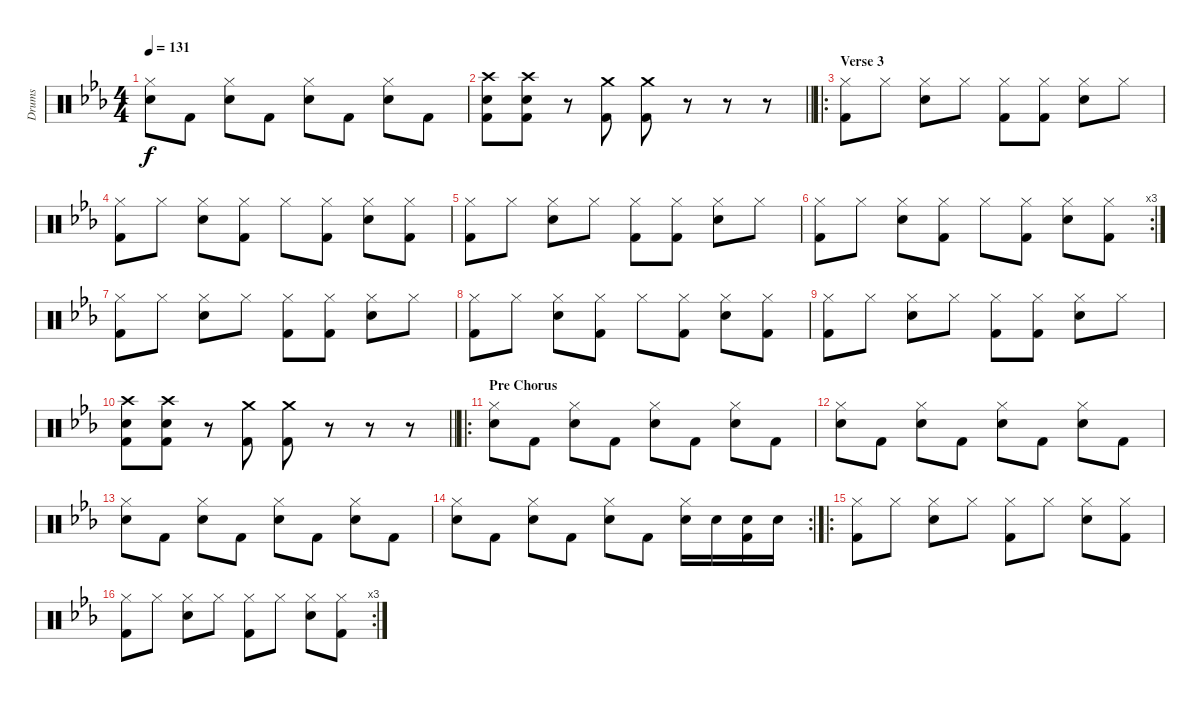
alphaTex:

\track ("Drums" "Drums") {instrument percussion}
\staff
\articulation defaults
\ts (4 4)
\tempo 131
\clef neutral
\ks eb
("Snare (hit) 2" "Hi-Hat (closed)").8{dy f} "Kick (hit) 2".8 ("Snare (hit) 2" "Hi-Hat (closed)").8 "Kick (hit) 2".8 ("Snare (hit) 2" "Hi-Hat (closed)").8 "Kick (hit) 2".8 ("Snare (hit) 2" "Hi-Hat (closed)").8 "Kick (hit) 2".8 |
\barLineRight lightlight
("Crash high (hit)" "Snare (hit) 2" "Kick (hit) 2").8 ("Crash high (hit)" "Snare (hit) 2" "Kick (hit) 2").8 r.8 ("Crash medium (hit)" "Kick (hit) 2").8 ("Crash medium (hit)" "Kick (hit) 2").8 r.8 r.8 r.8 |
\ro
\section ("" "Verse 3")
("Hi-Hat (closed)" "Kick (hit) 2").8 "Hi-Hat (closed)".8 ("Snare (hit) 2" "Hi-Hat (closed)").8 "Hi-Hat (closed)".8 ("Hi-Hat (closed)" "Kick (hit) 2").8 ("Hi-Hat (closed)" "Kick (hit) 2").8 ("Snare (hit) 2" "Hi-Hat (closed)").8 "Hi-Hat (closed)".8 |
("Hi-Hat (closed)" "Kick (hit) 2").8 "Hi-Hat (closed)".8 ("Snare (hit) 2" "Hi-Hat (closed)").8 ("Hi-Hat (closed)" "Kick (hit) 2").8 "Hi-Hat (closed)".8 ("Hi-Hat (closed)" "Kick (hit) 2").8 ("Snare (hit) 2" "Hi-Hat (closed)").8 ("Hi-Hat (closed)" "Kick (hit) 2").8 |
("Hi-Hat (closed)" "Kick (hit) 2").8 "Hi-Hat (closed)".8 ("Snare (hit) 2" "Hi-Hat (closed)").8 "Hi-Hat (closed)".8 ("Hi-Hat (closed)" "Kick (hit) 2").8 ("Hi-Hat (closed)" "Kick (hit) 2").8 ("Snare (hit) 2" "Hi-Hat (closed)").8 "Hi-Hat (closed)".8 |
\rc 3
("Hi-Hat (closed)" "Kick (hit) 2").8 "Hi-Hat (closed)".8 ("Snare (hit) 2" "Hi-Hat (closed)").8 ("Hi-Hat (closed)" "Kick (hit) 2").8 "Hi-Hat (closed)".8 ("Hi-Hat (closed)" "Kick (hit) 2").8 ("Snare (hit) 2" "Hi-Hat (closed)").8 ("Hi-Hat (closed)" "Kick (hit) 2").8 |
("Hi-Hat (closed)" "Kick (hit) 2").8 "Hi-Hat (closed)".8 ("Snare (hit) 2" "Hi-Hat (closed)").8 "Hi-Hat (closed)".8 ("Hi-Hat (closed)" "Kick (hit) 2").8 ("Hi-Hat (closed)" "Kick (hit) 2").8 ("Snare (hit) 2" "Hi-Hat (closed)").8 "Hi-Hat (closed)".8 |
("Hi-Hat (closed)" "Kick (hit) 2").8 "Hi-Hat (closed)".8 ("Snare (hit) 2" "Hi-Hat (closed)").8 ("Hi-Hat (closed)" "Kick (hit) 2").8 "Hi-Hat (closed)".8 ("Hi-Hat (closed)" "Kick (hit) 2").8 ("Snare (hit) 2" "Hi-Hat (closed)").8 ("Hi-Hat (closed)" "Kick (hit) 2").8 |
("Hi-Hat (closed)" "Kick (hit) 2").8 "Hi-Hat (closed)".8 ("Snare (hit) 2" "Hi-Hat (closed)").8 "Hi-Hat (closed)".8 ("Hi-Hat (closed)" "Kick (hit) 2").8 ("Hi-Hat (closed)" "Kick (hit) 2").8 ("Snare (hit) 2" "Hi-Hat (closed)").8 "Hi-Hat (closed)".8 |
\barLineRight lightlight
("Crash high (hit)" "Snare (hit) 2" "Kick (hit) 2").8 ("Crash high (hit)" "Snare (hit) 2" "Kick (hit) 2").8 r.8 ("Crash medium (hit)" "Kick (hit) 2").8 ("Crash medium (hit)" "Kick (hit) 2").8 r.8 r.8 r.8 |
\ro
\section ("" "Pre Chorus")
("Snare (hit) 2" "Hi-Hat (closed)").8 "Kick (hit) 2".8 ("Snare (hit) 2" "Hi-Hat (closed)").8 "Kick (hit) 2".8 ("Snare (hit) 2" "Hi-Hat (closed)").8 "Kick (hit) 2".8 ("Snare (hit) 2" "Hi-Hat (closed)").8 "Kick (hit) 2".8 |
("Snare (hit) 2" "Hi-Hat (closed)").8 "Kick (hit) 2".8 ("Snare (hit) 2" "Hi-Hat (closed)").8 "Kick (hit) 2".8 ("Snare (hit) 2" "Hi-Hat (closed)").8 "Kick (hit) 2".8 ("Snare (hit) 2" "Hi-Hat (closed)").8 "Kick (hit) 2".8 |
("Snare (hit) 2" "Hi-Hat (closed)").8 "Kick (hit) 2".8 ("Snare (hit) 2" "Hi-Hat (closed)").8 "Kick (hit) 2".8 ("Snare (hit) 2" "Hi-Hat (closed)").8 "Kick (hit) 2".8 ("Snare (hit) 2" "Hi-Hat (closed)").8 "Kick (hit) 2".8 |
\rc 2
("Snare (hit) 2" "Hi-Hat (closed)").8 "Kick (hit) 2".8 ("Snare (hit) 2" "Hi-Hat (closed)").8 "Kick (hit) 2".8 ("Snare (hit) 2" "Hi-Hat (closed)").8 "Kick (hit) 2".8 ("Snare (hit) 2" "Hi-Hat (closed)").16 "Snare (hit) 2".16 ("Snare (hit) 2" "Kick (hit) 2").16 "Snare (hit) 2".16 |
\ro
("Hi-Hat (closed)" "Kick (hit) 2").8 "Hi-Hat (closed)".8 ("Snare (hit) 2" "Hi-Hat (closed)").8 "Hi-Hat (closed)".8 ("Hi-Hat (closed)" "Kick (hit) 2").8 "Hi-Hat (closed)".8 ("Snare (hit) 2" "Hi-Hat (closed)").8 ("Hi-Hat (closed)" "Kick (hit) 2").8 |
\rc 3
("Hi-Hat (closed)" "Kick (hit) 2").8 "Hi-Hat (closed)".8 ("Snare (hit) 2" "Hi-Hat (closed)").8 "Hi-Hat (closed)".8 ("Hi-Hat (closed)" "Kick (hit) 2").8 "Hi-Hat (closed)".8 ("Snare (hit) 2" "Hi-Hat (closed)").8 ("Hi-Hat (closed)" "Kick (hit) 2").8
